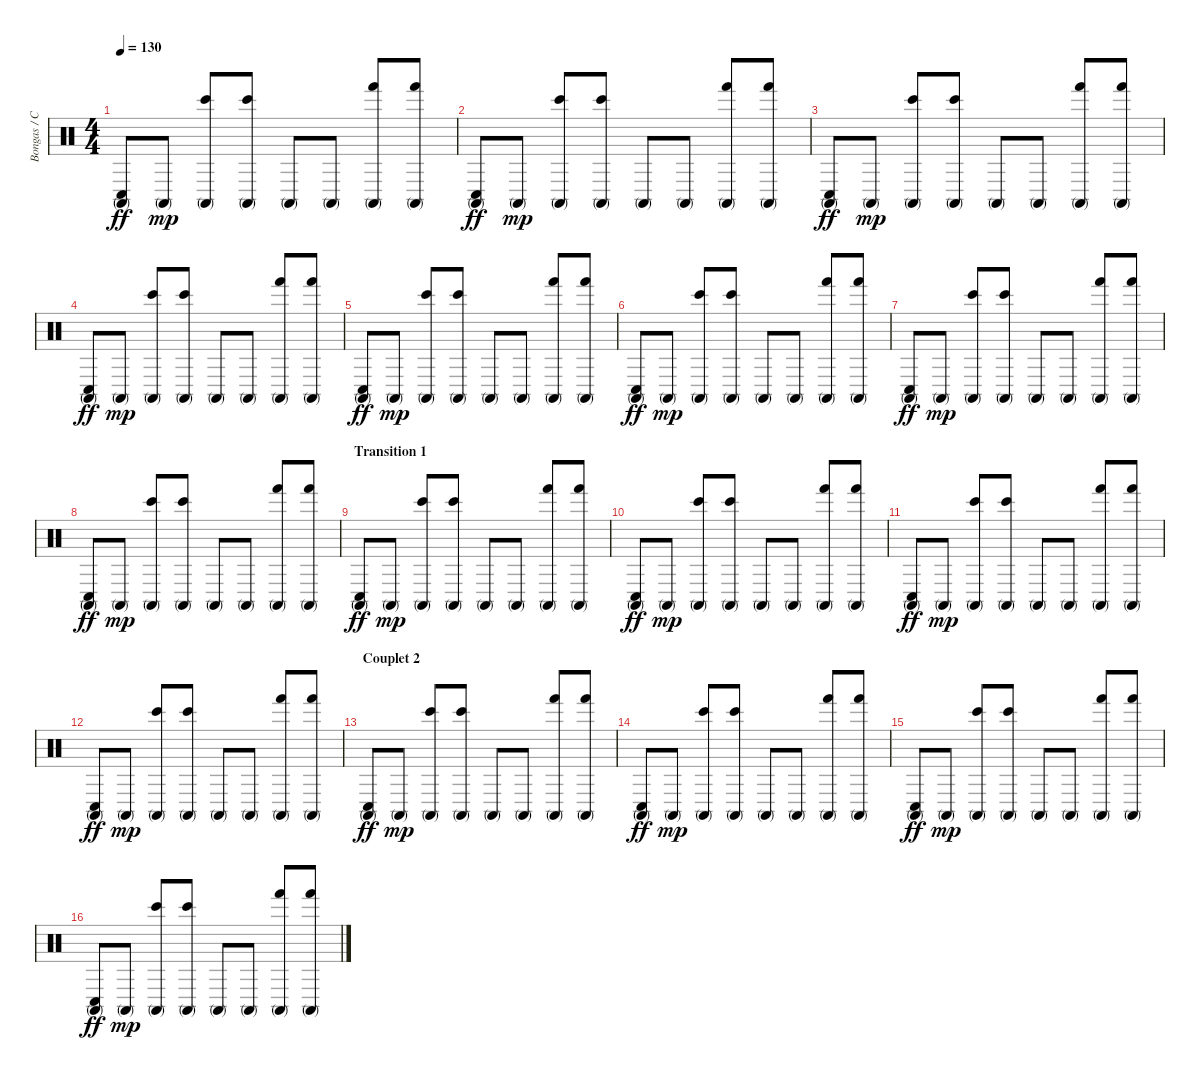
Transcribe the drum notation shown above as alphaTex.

\track ("Bongas / Congos" "Bongas / C") {instrument percussion}
\staff {score}
\articulation defaults
\ts (4 4)
\tempo 130
\clef neutral
\ks c
("Conga high (mute)" "Conga low (hit)").8{dy ff} "Conga high (mute)".8{dy mp} ("Conga high (mute)" "Bongo High (hit)").8 ("Conga high (mute)" "Bongo High (hit)").8 "Conga high (mute)".8 "Conga high (mute)".8 ("Conga high (mute)" "Hand (hit)").8 ("Conga high (mute)" "Hand (hit)").8 |
("Conga high (mute)" "Conga low (hit)").8{dy ff} "Conga high (mute)".8{dy mp} ("Conga high (mute)" "Bongo High (hit)").8 ("Conga high (mute)" "Bongo High (hit)").8 "Conga high (mute)".8 "Conga high (mute)".8 ("Conga high (mute)" "Hand (hit)").8 ("Conga high (mute)" "Hand (hit)").8 |
("Conga high (mute)" "Conga low (hit)").8{dy ff} "Conga high (mute)".8{dy mp} ("Conga high (mute)" "Bongo High (hit)").8 ("Conga high (mute)" "Bongo High (hit)").8 "Conga high (mute)".8 "Conga high (mute)".8 ("Conga high (mute)" "Hand (hit)").8 ("Conga high (mute)" "Hand (hit)").8 |
("Conga high (mute)" "Conga low (hit)").8{dy ff} "Conga high (mute)".8{dy mp} ("Conga high (mute)" "Bongo High (hit)").8 ("Conga high (mute)" "Bongo High (hit)").8 "Conga high (mute)".8 "Conga high (mute)".8 ("Conga high (mute)" "Hand (hit)").8 ("Conga high (mute)" "Hand (hit)").8 |
("Conga high (mute)" "Conga low (hit)").8{dy ff} "Conga high (mute)".8{dy mp} ("Conga high (mute)" "Bongo High (hit)").8 ("Conga high (mute)" "Bongo High (hit)").8 "Conga high (mute)".8 "Conga high (mute)".8 ("Conga high (mute)" "Hand (hit)").8 ("Conga high (mute)" "Hand (hit)").8 |
("Conga high (mute)" "Conga low (hit)").8{dy ff} "Conga high (mute)".8{dy mp} ("Conga high (mute)" "Bongo High (hit)").8 ("Conga high (mute)" "Bongo High (hit)").8 "Conga high (mute)".8 "Conga high (mute)".8 ("Conga high (mute)" "Hand (hit)").8 ("Conga high (mute)" "Hand (hit)").8 |
("Conga high (mute)" "Conga low (hit)").8{dy ff} "Conga high (mute)".8{dy mp} ("Conga high (mute)" "Bongo High (hit)").8 ("Conga high (mute)" "Bongo High (hit)").8 "Conga high (mute)".8 "Conga high (mute)".8 ("Conga high (mute)" "Hand (hit)").8 ("Conga high (mute)" "Hand (hit)").8 |
("Conga high (mute)" "Conga low (hit)").8{dy ff} "Conga high (mute)".8{dy mp} ("Conga high (mute)" "Bongo High (hit)").8 ("Conga high (mute)" "Bongo High (hit)").8 "Conga high (mute)".8 "Conga high (mute)".8 ("Conga high (mute)" "Hand (hit)").8 ("Conga high (mute)" "Hand (hit)").8 |
\section ("" "Transition 1")
("Conga high (mute)" "Conga low (hit)").8{dy ff} "Conga high (mute)".8{dy mp} ("Conga high (mute)" "Bongo High (hit)").8 ("Conga high (mute)" "Bongo High (hit)").8 "Conga high (mute)".8 "Conga high (mute)".8 ("Conga high (mute)" "Hand (hit)").8 ("Conga high (mute)" "Hand (hit)").8 |
("Conga high (mute)" "Conga low (hit)").8{dy ff} "Conga high (mute)".8{dy mp} ("Conga high (mute)" "Bongo High (hit)").8 ("Conga high (mute)" "Bongo High (hit)").8 "Conga high (mute)".8 "Conga high (mute)".8 ("Conga high (mute)" "Hand (hit)").8 ("Conga high (mute)" "Hand (hit)").8 |
("Conga high (mute)" "Conga low (hit)").8{dy ff} "Conga high (mute)".8{dy mp} ("Conga high (mute)" "Bongo High (hit)").8 ("Conga high (mute)" "Bongo High (hit)").8 "Conga high (mute)".8 "Conga high (mute)".8 ("Conga high (mute)" "Hand (hit)").8 ("Conga high (mute)" "Hand (hit)").8 |
("Conga high (mute)" "Conga low (hit)").8{dy ff} "Conga high (mute)".8{dy mp} ("Conga high (mute)" "Bongo High (hit)").8 ("Conga high (mute)" "Bongo High (hit)").8 "Conga high (mute)".8 "Conga high (mute)".8 ("Conga high (mute)" "Hand (hit)").8 ("Conga high (mute)" "Hand (hit)").8 |
\section ("" "Couplet 2")
("Conga high (mute)" "Conga low (hit)").8{dy ff} "Conga high (mute)".8{dy mp} ("Conga high (mute)" "Bongo High (hit)").8 ("Conga high (mute)" "Bongo High (hit)").8 "Conga high (mute)".8 "Conga high (mute)".8 ("Conga high (mute)" "Hand (hit)").8 ("Conga high (mute)" "Hand (hit)").8 |
("Conga high (mute)" "Conga low (hit)").8{dy ff} "Conga high (mute)".8{dy mp} ("Conga high (mute)" "Bongo High (hit)").8 ("Conga high (mute)" "Bongo High (hit)").8 "Conga high (mute)".8 "Conga high (mute)".8 ("Conga high (mute)" "Hand (hit)").8 ("Conga high (mute)" "Hand (hit)").8 |
("Conga high (mute)" "Conga low (hit)").8{dy ff} "Conga high (mute)".8{dy mp} ("Conga high (mute)" "Bongo High (hit)").8 ("Conga high (mute)" "Bongo High (hit)").8 "Conga high (mute)".8 "Conga high (mute)".8 ("Conga high (mute)" "Hand (hit)").8 ("Conga high (mute)" "Hand (hit)").8 |
("Conga high (mute)" "Conga low (hit)").8{dy ff} "Conga high (mute)".8{dy mp} ("Conga high (mute)" "Bongo High (hit)").8 ("Conga high (mute)" "Bongo High (hit)").8 "Conga high (mute)".8 "Conga high (mute)".8 ("Conga high (mute)" "Hand (hit)").8 ("Conga high (mute)" "Hand (hit)").8
